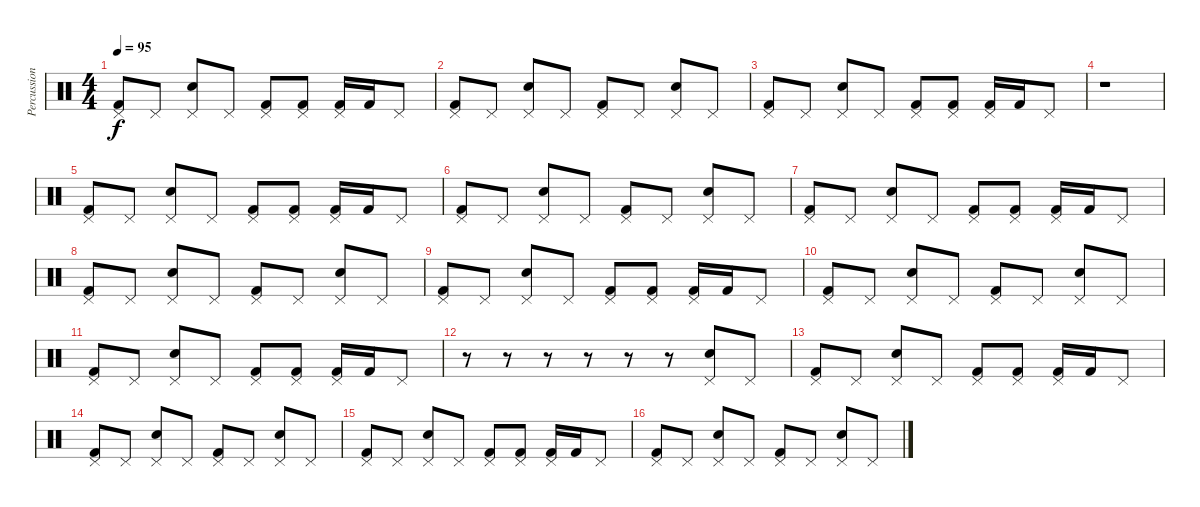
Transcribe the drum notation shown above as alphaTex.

\track ("Percussions" "Percussion") {instrument percussion}
\staff {score}
\articulation defaults
\ts (4 4)
\tempo 95
\clef neutral
\ks c
("Pedal Hi-Hat (hit)" "Kick (hit) 2").8{dy f} "Pedal Hi-Hat (hit)".8 ("Pedal Hi-Hat (hit)" "Electric Snare (hit)").8 "Pedal Hi-Hat (hit)".8 ("Pedal Hi-Hat (hit)" "Kick (hit) 2").8 ("Pedal Hi-Hat (hit)" "Kick (hit) 2").8 ("Pedal Hi-Hat (hit)" "Kick (hit) 2").16 "Kick (hit) 2".16 "Pedal Hi-Hat (hit)".8 |
("Pedal Hi-Hat (hit)" "Kick (hit) 2").8 "Pedal Hi-Hat (hit)".8 ("Pedal Hi-Hat (hit)" "Electric Snare (hit)").8 "Pedal Hi-Hat (hit)".8 ("Pedal Hi-Hat (hit)" "Kick (hit) 2").8 "Pedal Hi-Hat (hit)".8 ("Pedal Hi-Hat (hit)" "Electric Snare (hit)").8 "Pedal Hi-Hat (hit)".8 |
("Pedal Hi-Hat (hit)" "Kick (hit) 2").8 "Pedal Hi-Hat (hit)".8 ("Pedal Hi-Hat (hit)" "Electric Snare (hit)").8 "Pedal Hi-Hat (hit)".8 ("Pedal Hi-Hat (hit)" "Kick (hit) 2").8 ("Pedal Hi-Hat (hit)" "Kick (hit) 2").8 ("Pedal Hi-Hat (hit)" "Kick (hit) 2").16 "Kick (hit) 2".16 "Pedal Hi-Hat (hit)".8 |
r.1 |
("Pedal Hi-Hat (hit)" "Kick (hit) 2").8 "Pedal Hi-Hat (hit)".8 ("Pedal Hi-Hat (hit)" "Electric Snare (hit)").8 "Pedal Hi-Hat (hit)".8 ("Pedal Hi-Hat (hit)" "Kick (hit) 2").8 ("Pedal Hi-Hat (hit)" "Kick (hit) 2").8 ("Pedal Hi-Hat (hit)" "Kick (hit) 2").16 "Kick (hit) 2".16 "Pedal Hi-Hat (hit)".8 |
("Pedal Hi-Hat (hit)" "Kick (hit) 2").8 "Pedal Hi-Hat (hit)".8 ("Pedal Hi-Hat (hit)" "Electric Snare (hit)").8 "Pedal Hi-Hat (hit)".8 ("Pedal Hi-Hat (hit)" "Kick (hit) 2").8 "Pedal Hi-Hat (hit)".8 ("Pedal Hi-Hat (hit)" "Electric Snare (hit)").8 "Pedal Hi-Hat (hit)".8 |
("Pedal Hi-Hat (hit)" "Kick (hit) 2").8 "Pedal Hi-Hat (hit)".8 ("Pedal Hi-Hat (hit)" "Electric Snare (hit)").8 "Pedal Hi-Hat (hit)".8 ("Pedal Hi-Hat (hit)" "Kick (hit) 2").8 ("Pedal Hi-Hat (hit)" "Kick (hit) 2").8 ("Pedal Hi-Hat (hit)" "Kick (hit) 2").16 "Kick (hit) 2".16 "Pedal Hi-Hat (hit)".8 |
("Pedal Hi-Hat (hit)" "Kick (hit) 2").8 "Pedal Hi-Hat (hit)".8 ("Pedal Hi-Hat (hit)" "Electric Snare (hit)").8 "Pedal Hi-Hat (hit)".8 ("Pedal Hi-Hat (hit)" "Kick (hit) 2").8 "Pedal Hi-Hat (hit)".8 ("Pedal Hi-Hat (hit)" "Electric Snare (hit)").8 "Pedal Hi-Hat (hit)".8 |
("Pedal Hi-Hat (hit)" "Kick (hit) 2").8 "Pedal Hi-Hat (hit)".8 ("Pedal Hi-Hat (hit)" "Electric Snare (hit)").8 "Pedal Hi-Hat (hit)".8 ("Pedal Hi-Hat (hit)" "Kick (hit) 2").8 ("Pedal Hi-Hat (hit)" "Kick (hit) 2").8 ("Pedal Hi-Hat (hit)" "Kick (hit) 2").16 "Kick (hit) 2".16 "Pedal Hi-Hat (hit)".8 |
("Pedal Hi-Hat (hit)" "Kick (hit) 2").8 "Pedal Hi-Hat (hit)".8 ("Pedal Hi-Hat (hit)" "Electric Snare (hit)").8 "Pedal Hi-Hat (hit)".8 ("Pedal Hi-Hat (hit)" "Kick (hit) 2").8 "Pedal Hi-Hat (hit)".8 ("Pedal Hi-Hat (hit)" "Electric Snare (hit)").8 "Pedal Hi-Hat (hit)".8 |
("Pedal Hi-Hat (hit)" "Kick (hit) 2").8 "Pedal Hi-Hat (hit)".8 ("Pedal Hi-Hat (hit)" "Electric Snare (hit)").8 "Pedal Hi-Hat (hit)".8 ("Pedal Hi-Hat (hit)" "Kick (hit) 2").8 ("Pedal Hi-Hat (hit)" "Kick (hit) 2").8 ("Pedal Hi-Hat (hit)" "Kick (hit) 2").16 "Kick (hit) 2".16 "Pedal Hi-Hat (hit)".8 |
r.8 r.8 r.8 r.8 r.8 r.8 ("Pedal Hi-Hat (hit)" "Electric Snare (hit)").8 "Pedal Hi-Hat (hit)".8 |
("Pedal Hi-Hat (hit)" "Kick (hit) 2").8 "Pedal Hi-Hat (hit)".8 ("Pedal Hi-Hat (hit)" "Electric Snare (hit)").8 "Pedal Hi-Hat (hit)".8 ("Pedal Hi-Hat (hit)" "Kick (hit) 2").8 ("Pedal Hi-Hat (hit)" "Kick (hit) 2").8 ("Pedal Hi-Hat (hit)" "Kick (hit) 2").16 "Kick (hit) 2".16 "Pedal Hi-Hat (hit)".8 |
("Pedal Hi-Hat (hit)" "Kick (hit) 2").8 "Pedal Hi-Hat (hit)".8 ("Pedal Hi-Hat (hit)" "Electric Snare (hit)").8 "Pedal Hi-Hat (hit)".8 ("Pedal Hi-Hat (hit)" "Kick (hit) 2").8 "Pedal Hi-Hat (hit)".8 ("Pedal Hi-Hat (hit)" "Electric Snare (hit)").8 "Pedal Hi-Hat (hit)".8 |
("Pedal Hi-Hat (hit)" "Kick (hit) 2").8 "Pedal Hi-Hat (hit)".8 ("Pedal Hi-Hat (hit)" "Electric Snare (hit)").8 "Pedal Hi-Hat (hit)".8 ("Pedal Hi-Hat (hit)" "Kick (hit) 2").8 ("Pedal Hi-Hat (hit)" "Kick (hit) 2").8 ("Pedal Hi-Hat (hit)" "Kick (hit) 2").16 "Kick (hit) 2".16 "Pedal Hi-Hat (hit)".8 |
("Pedal Hi-Hat (hit)" "Kick (hit) 2").8 "Pedal Hi-Hat (hit)".8 ("Pedal Hi-Hat (hit)" "Electric Snare (hit)").8 "Pedal Hi-Hat (hit)".8 ("Pedal Hi-Hat (hit)" "Kick (hit) 2").8 "Pedal Hi-Hat (hit)".8 ("Pedal Hi-Hat (hit)" "Electric Snare (hit)").8 "Pedal Hi-Hat (hit)".8
